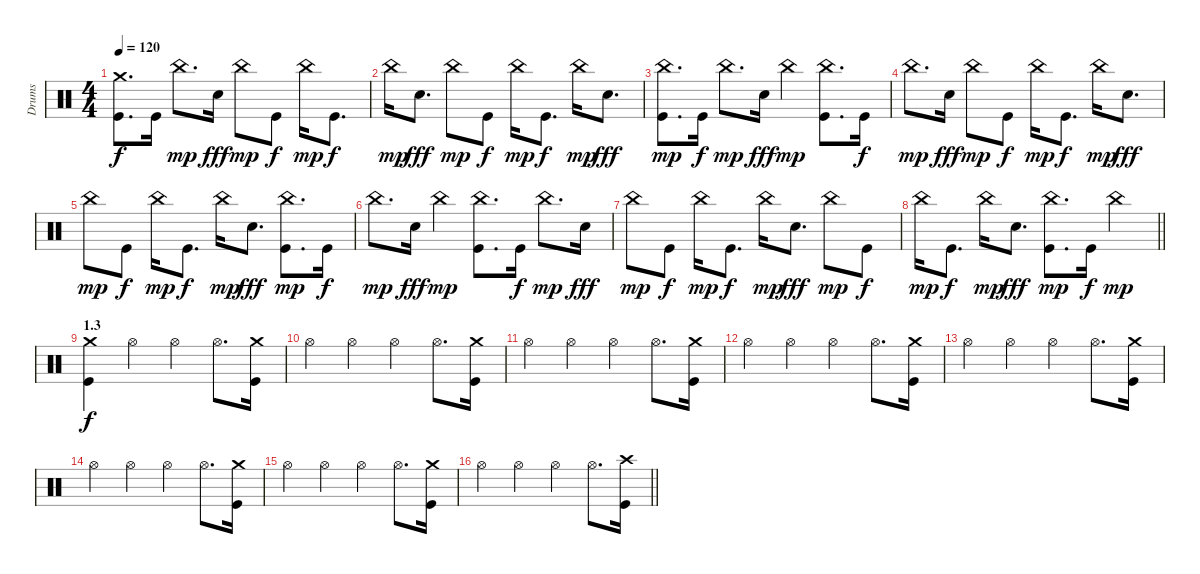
\track ("Drums" "Drums") {instrument percussion}
\staff {score}
\articulation defaults
\ts (4 4)
\tempo 120
\clef neutral
\ks c
("Crash medium (hit)" "Kick (hit)").8{d dy f} "Kick (hit)".16 "China (hit)".8{d dy mp} "Snare (hit) 2".16{dy fff} "China (hit)".8{dy mp} "Kick (hit)".8{dy f} "China (hit)".16{dy mp} "Kick (hit)".8{d dy f} |
"China (hit)".16{dy mp} "Snare (hit) 2".8{d dy fff} "China (hit)".8{dy mp} "Kick (hit)".8{dy f} "China (hit)".16{dy mp} "Kick (hit)".8{d dy f} "China (hit)".16{dy mp} "Snare (hit) 2".8{d dy fff} |
("China (hit)" "Kick (hit)").8{d dy mp} "Kick (hit)".16{dy f} "China (hit)".8{d dy mp} "Snare (hit) 2".16{dy fff} "China (hit)".4{dy mp} ("China (hit)" "Kick (hit)").8{d} "Kick (hit)".16{dy f} |
"China (hit)".8{d dy mp} "Snare (hit) 2".16{dy fff} "China (hit)".8{dy mp} "Kick (hit)".8{dy f} "China (hit)".16{dy mp} "Kick (hit)".8{d dy f} "China (hit)".16{dy mp} "Snare (hit) 2".8{d dy fff} |
"China (hit)".8{dy mp} "Kick (hit)".8{dy f} "China (hit)".16{dy mp} "Kick (hit)".8{d dy f} "China (hit)".16{dy mp} "Snare (hit) 2".8{d dy fff} ("China (hit)" "Kick (hit)").8{d dy mp} "Kick (hit)".16{dy f} |
"China (hit)".8{d dy mp} "Snare (hit) 2".16{dy fff} "China (hit)".4{dy mp} ("China (hit)" "Kick (hit)").8{d} "Kick (hit)".16{dy f} "China (hit)".8{d dy mp} "Snare (hit) 2".16{dy fff} |
"China (hit)".8{dy mp} "Kick (hit)".8{dy f} "China (hit)".16{dy mp} "Kick (hit)".8{d dy f} "China (hit)".16{dy mp} "Snare (hit) 2".8{d dy fff} "China (hit)".8{dy mp} "Kick (hit)".8{dy f} |
\barLineRight lightlight "China (hit)".16{dy mp} "Kick (hit)".8{d dy f} "China (hit)".16{dy mp} "Snare (hit) 2".8{d dy fff}
("China (hit)" "Kick (hit)").8{d dy mp} "Kick (hit)".16{dy f} "China (hit)".4{dy mp} |
\section ("" "1.3")
("Crash medium (hit)" "Kick (hit)").4{dy f} "Hi-Hat (open)".4 "Hi-Hat (open)".4 "Hi-Hat (open)".8{d} ("Crash medium (hit)" "Kick (hit)").16 |
"Hi-Hat (open)".4 "Hi-Hat (open)".4 "Hi-Hat (open)".4 "Hi-Hat (open)".8{d} ("Crash medium (hit)" "Kick (hit)").16 |
"Hi-Hat (open)".4 "Hi-Hat (open)".4 "Hi-Hat (open)".4 "Hi-Hat (open)".8{d} ("Crash medium (hit)" "Kick (hit)").16 |
"Hi-Hat (open)".4 "Hi-Hat (open)".4 "Hi-Hat (open)".4 "Hi-Hat (open)".8{d} ("Crash medium (hit)" "Kick (hit)").16 |
"Hi-Hat (open)".4 "Hi-Hat (open)".4 "Hi-Hat (open)".4 "Hi-Hat (open)".8{d} ("Crash medium (hit)" "Kick (hit)").16 |
"Hi-Hat (open)".4 "Hi-Hat (open)".4 "Hi-Hat (open)".4 "Hi-Hat (open)".8{d} ("Crash medium (hit)" "Kick (hit)").16 |
"Hi-Hat (open)".4 "Hi-Hat (open)".4 "Hi-Hat (open)".4 "Hi-Hat (open)".8{d} ("Crash medium (hit)" "Kick (hit)").16 |
\barLineRight lightlight "Hi-Hat (open)".4 "Hi-Hat (open)".4 "Hi-Hat (open)".4 "Hi-Hat (open)".8{d}
("Crash high (hit)" "Kick (hit)").16
